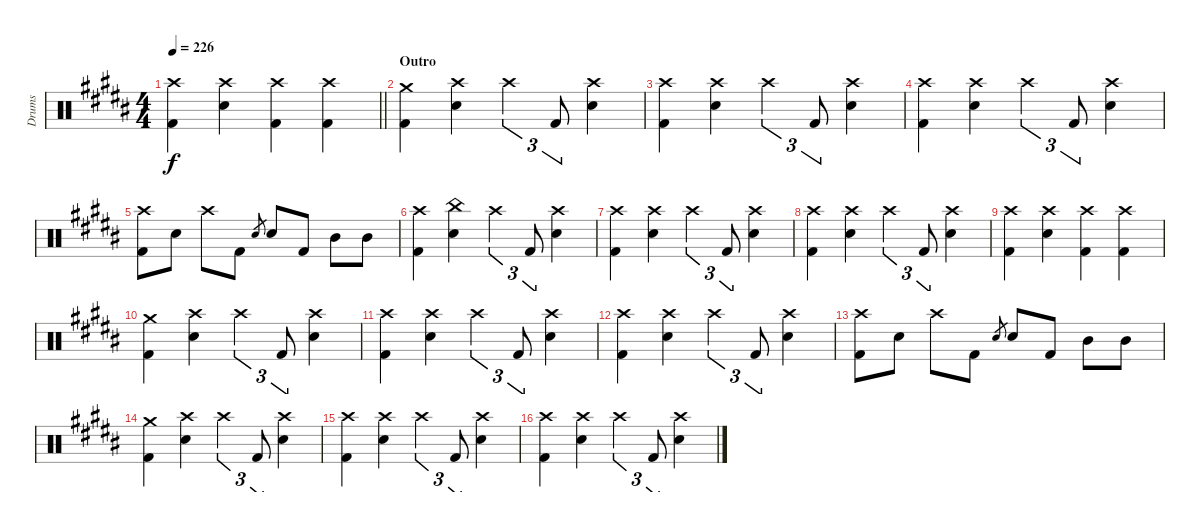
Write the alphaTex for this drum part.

\track ("Drums" "Drums") {instrument percussion}
\staff {score}
\articulation defaults
\ts (4 4)
\tempo 226
\clef neutral
\barLineRight lightlight
\ks b
("Crash high (hit)" "Kick (hit) 2").4{dy f} ("Crash high (hit)" "Snare (hit) 2").4 ("Crash high (hit)" "Kick (hit) 2").4 ("Crash high (hit)" "Kick (hit) 2").4 |
\section ("" "Outro")
("Crash medium (hit)" "Kick (hit) 2").4 ("Crash high (hit)" "Snare (hit) 2").4 "Crash high (hit)".4{tu (3 2)} "Kick (hit) 2".8{tu (3 2)} ("Crash high (hit)" "Snare (hit) 2").4 |
("Crash high (hit)" "Kick (hit) 2").4 ("Crash high (hit)" "Snare (hit) 2").4 "Crash high (hit)".4{tu (3 2)} "Kick (hit) 2".8{tu (3 2)} ("Crash high (hit)" "Snare (hit) 2").4 |
("Crash high (hit)" "Kick (hit) 2").4 ("Crash high (hit)" "Snare (hit) 2").4 "Crash high (hit)".4{tu (3 2)} "Kick (hit) 2".8{tu (3 2)} ("Crash high (hit)" "Snare (hit) 2").4 |
("Crash high (hit)" "Kick (hit) 2").8 "Snare (hit) 2".8 "Crash high (hit)".8 "Kick (hit) 2".8 "Snare (hit) 2".8{gr} "Snare (hit) 2".8 "Kick (hit) 2".8 "Mid Tom (hit)".8 "Mid Tom (hit)".8 |
("Crash high (hit)" "Kick (hit) 2").4 ("China (hit)" "Snare (hit) 2").4 "Crash high (hit)".4{tu (3 2)} "Kick (hit) 2".8{tu (3 2)} ("Crash high (hit)" "Snare (hit) 2").4 |
("Crash high (hit)" "Kick (hit) 2").4 ("Crash high (hit)" "Snare (hit) 2").4 "Crash high (hit)".4{tu (3 2)} "Kick (hit) 2".8{tu (3 2)} ("Crash high (hit)" "Snare (hit) 2").4 |
("Crash high (hit)" "Kick (hit) 2").4 ("Crash high (hit)" "Snare (hit) 2").4 "Crash high (hit)".4{tu (3 2)} "Kick (hit) 2".8{tu (3 2)} ("Crash high (hit)" "Snare (hit) 2").4 |
("Crash high (hit)" "Kick (hit) 2").4 ("Crash high (hit)" "Snare (hit) 2").4 ("Crash high (hit)" "Kick (hit) 2").4 ("Crash high (hit)" "Kick (hit) 2").4 |
("Crash medium (hit)" "Kick (hit) 2").4 ("Crash high (hit)" "Snare (hit) 2").4 "Crash high (hit)".4{tu (3 2)} "Kick (hit) 2".8{tu (3 2)} ("Crash high (hit)" "Snare (hit) 2").4 |
("Crash high (hit)" "Kick (hit) 2").4 ("Crash high (hit)" "Snare (hit) 2").4 "Crash high (hit)".4{tu (3 2)} "Kick (hit) 2".8{tu (3 2)} ("Crash high (hit)" "Snare (hit) 2").4 |
("Crash high (hit)" "Kick (hit) 2").4 ("Crash high (hit)" "Snare (hit) 2").4 "Crash high (hit)".4{tu (3 2)} "Kick (hit) 2".8{tu (3 2)} ("Crash high (hit)" "Snare (hit) 2").4 |
("Crash high (hit)" "Kick (hit) 2").8 "Snare (hit) 2".8 "Crash high (hit)".8 "Kick (hit) 2".8 "Snare (hit) 2".8{gr} "Snare (hit) 2".8 "Kick (hit) 2".8 "Mid Tom (hit)".8 "Mid Tom (hit)".8 |
("Crash medium (hit)" "Kick (hit) 2").4 ("Crash high (hit)" "Snare (hit) 2").4 "Crash high (hit)".4{tu (3 2)} "Kick (hit) 2".8{tu (3 2)} ("Crash high (hit)" "Snare (hit) 2").4 |
("Crash high (hit)" "Kick (hit) 2").4 ("Crash high (hit)" "Snare (hit) 2").4 "Crash high (hit)".4{tu (3 2)} "Kick (hit) 2".8{tu (3 2)} ("Crash high (hit)" "Snare (hit) 2").4 |
("Crash high (hit)" "Kick (hit) 2").4 ("Crash high (hit)" "Snare (hit) 2").4 "Crash high (hit)".4{tu (3 2)} "Kick (hit) 2".8{tu (3 2)} ("Crash high (hit)" "Snare (hit) 2").4
